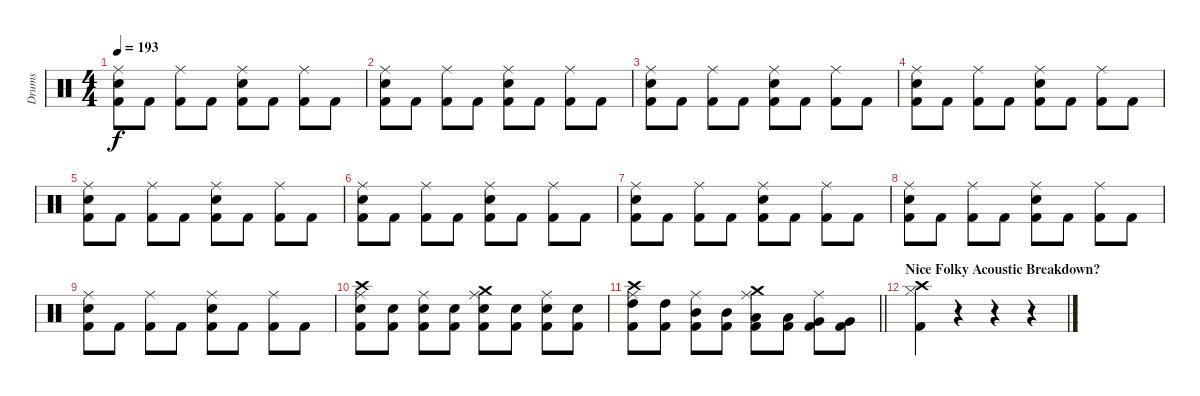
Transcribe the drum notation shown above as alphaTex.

\track ("Drums" "Drums") {instrument percussion}
\staff {score}
\articulation defaults
\ts (4 4)
\tempo 193
\clef neutral
\ks c
("Ride (middle)" "Snare (hit) 2" "Kick (hit) 2").8{dy f} "Kick (hit) 2".8 ("Ride (middle)" "Kick (hit) 2").8 "Kick (hit) 2".8 ("Ride (middle)" "Snare (hit) 2" "Kick (hit) 2").8 "Kick (hit) 2".8 ("Ride (middle)" "Kick (hit) 2").8 "Kick (hit) 2".8 |
("Ride (middle)" "Snare (hit) 2" "Kick (hit) 2").8 "Kick (hit) 2".8 ("Ride (middle)" "Kick (hit) 2").8 "Kick (hit) 2".8 ("Ride (middle)" "Snare (hit) 2" "Kick (hit) 2").8 "Kick (hit) 2".8 ("Ride (middle)" "Kick (hit) 2").8 "Kick (hit) 2".8 |
("Ride (middle)" "Snare (hit) 2" "Kick (hit) 2").8 "Kick (hit) 2".8 ("Ride (middle)" "Kick (hit) 2").8 "Kick (hit) 2".8 ("Ride (middle)" "Snare (hit) 2" "Kick (hit) 2").8 "Kick (hit) 2".8 ("Ride (middle)" "Kick (hit) 2").8 "Kick (hit) 2".8 |
("Ride (middle)" "Snare (hit) 2" "Kick (hit) 2").8 "Kick (hit) 2".8 ("Ride (middle)" "Kick (hit) 2").8 "Kick (hit) 2".8 ("Ride (middle)" "Snare (hit) 2" "Kick (hit) 2").8 "Kick (hit) 2".8 ("Ride (middle)" "Kick (hit) 2").8 "Kick (hit) 2".8 |
("Ride (middle)" "Snare (hit) 2" "Kick (hit) 2").8 "Kick (hit) 2".8 ("Ride (middle)" "Kick (hit) 2").8 "Kick (hit) 2".8 ("Ride (middle)" "Snare (hit) 2" "Kick (hit) 2").8 "Kick (hit) 2".8 ("Ride (middle)" "Kick (hit) 2").8 "Kick (hit) 2".8 |
("Ride (middle)" "Snare (hit) 2" "Kick (hit) 2").8 "Kick (hit) 2".8 ("Ride (middle)" "Kick (hit) 2").8 "Kick (hit) 2".8 ("Ride (middle)" "Snare (hit) 2" "Kick (hit) 2").8 "Kick (hit) 2".8 ("Ride (middle)" "Kick (hit) 2").8 "Kick (hit) 2".8 |
("Ride (middle)" "Snare (hit) 2" "Kick (hit) 2").8 "Kick (hit) 2".8 ("Ride (middle)" "Kick (hit) 2").8 "Kick (hit) 2".8 ("Ride (middle)" "Snare (hit) 2" "Kick (hit) 2").8 "Kick (hit) 2".8 ("Ride (middle)" "Kick (hit) 2").8 "Kick (hit) 2".8 |
("Ride (middle)" "Snare (hit) 2" "Kick (hit) 2").8 "Kick (hit) 2".8 ("Ride (middle)" "Kick (hit) 2").8 "Kick (hit) 2".8 ("Ride (middle)" "Snare (hit) 2" "Kick (hit) 2").8 "Kick (hit) 2".8 ("Ride (middle)" "Kick (hit) 2").8 "Kick (hit) 2".8 |
("Ride (middle)" "Snare (hit) 2" "Kick (hit) 2").8 "Kick (hit) 2".8 ("Ride (middle)" "Kick (hit) 2").8 "Kick (hit) 2".8 ("Ride (middle)" "Snare (hit) 2" "Kick (hit) 2").8 "Kick (hit) 2".8 ("Ride (middle)" "Kick (hit) 2").8 "Kick (hit) 2".8 |
("Crash high (hit)" "Ride (middle)" "Snare (hit) 2" "Kick (hit) 2").8 ("Snare (hit) 2" "Kick (hit) 2").8 ("Ride (middle)" "Snare (hit) 2" "Kick (hit) 2").8 ("Snare (hit) 2" "Kick (hit) 2").8 ("Crash medium (hit)" "Ride (middle)" "Snare (hit) 2" "Kick (hit) 2").8 ("Snare (hit) 2" "Kick (hit) 2").8 ("Ride (middle)" "Snare (hit) 2" "Kick (hit) 2").8 ("Snare (hit) 2" "Kick (hit) 2").8 |
\barLineRight lightlight
("Crash high (hit)" "Ride (middle)" "High Tom (hit)" "Kick (hit) 2").8 ("High Tom (hit)" "Kick (hit) 2").8 ("Ride (middle)" "Mid Tom (hit)" "Kick (hit) 2").8 ("Mid Tom (hit)" "Kick (hit) 2").8 ("Crash medium (hit)" "Ride (middle)" "Low Tom (hit)" "Kick (hit) 2").8 ("Low Tom (hit)" "Kick (hit) 2").8 ("Ride (middle)" "Very Low Tom (hit)" "Kick (hit) 2").8 ("Very Low Tom (hit)" "Kick (hit) 2").8 |
\section ("" "Nice Folky Acoustic Breakdown?")
("Crash high (hit)" "Hi-Hat (closed)" "Kick (hit) 2").4 r.4 r.4 r.4
